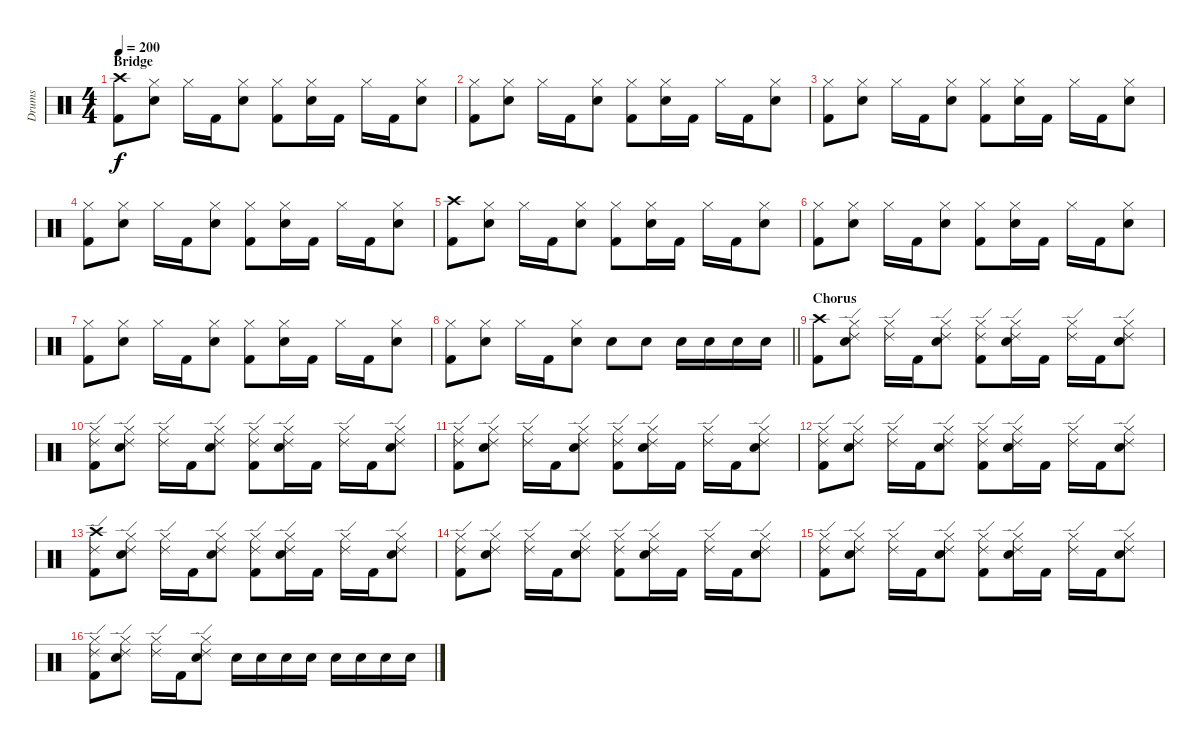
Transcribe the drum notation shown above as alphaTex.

\track ("Drums" "Drums") {instrument percussion}
\staff {score}
\articulation defaults
\ts (4 4)
\section ("" "Bridge")
\tempo 200
\clef neutral
\ks c
("Crash high (hit)" "Kick (hit) 2").8{dy f} ("Hi-Hat (closed)" "Electric Snare (hit)").8 "Hi-Hat (closed)".16 "Kick (hit) 2".16 ("Hi-Hat (closed)" "Electric Snare (hit)").8 ("Hi-Hat (closed)" "Kick (hit) 2").8 ("Hi-Hat (closed)" "Electric Snare (hit)").16 "Kick (hit) 2".16 "Hi-Hat (closed)".16 "Kick (hit) 2".16 ("Hi-Hat (closed)" "Electric Snare (hit)").8 |
("Hi-Hat (closed)" "Kick (hit) 2").8 ("Hi-Hat (closed)" "Electric Snare (hit)").8 "Hi-Hat (closed)".16 "Kick (hit) 2".16 ("Hi-Hat (closed)" "Electric Snare (hit)").8 ("Hi-Hat (closed)" "Kick (hit) 2").8 ("Hi-Hat (closed)" "Electric Snare (hit)").16 "Kick (hit) 2".16 "Hi-Hat (closed)".16 "Kick (hit) 2".16 ("Hi-Hat (closed)" "Electric Snare (hit)").8 |
("Hi-Hat (closed)" "Kick (hit) 2").8 ("Hi-Hat (closed)" "Electric Snare (hit)").8 "Hi-Hat (closed)".16 "Kick (hit) 2".16 ("Hi-Hat (closed)" "Electric Snare (hit)").8 ("Hi-Hat (closed)" "Kick (hit) 2").8 ("Hi-Hat (closed)" "Electric Snare (hit)").16 "Kick (hit) 2".16 "Hi-Hat (closed)".16 "Kick (hit) 2".16 ("Hi-Hat (closed)" "Electric Snare (hit)").8 |
("Hi-Hat (closed)" "Kick (hit) 2").8 ("Hi-Hat (closed)" "Electric Snare (hit)").8 "Hi-Hat (closed)".16 "Kick (hit) 2".16 ("Hi-Hat (closed)" "Electric Snare (hit)").8 ("Hi-Hat (closed)" "Kick (hit) 2").8 ("Hi-Hat (closed)" "Electric Snare (hit)").16 "Kick (hit) 2".16 "Hi-Hat (closed)".16 "Kick (hit) 2".16 ("Hi-Hat (closed)" "Electric Snare (hit)").8 |
("Crash high (hit)" "Kick (hit) 2").8 ("Hi-Hat (closed)" "Electric Snare (hit)").8 "Hi-Hat (closed)".16 "Kick (hit) 2".16 ("Hi-Hat (closed)" "Electric Snare (hit)").8 ("Hi-Hat (closed)" "Kick (hit) 2").8 ("Hi-Hat (closed)" "Electric Snare (hit)").16 "Kick (hit) 2".16 "Hi-Hat (closed)".16 "Kick (hit) 2".16 ("Hi-Hat (closed)" "Electric Snare (hit)").8 |
("Hi-Hat (closed)" "Kick (hit) 2").8 ("Hi-Hat (closed)" "Electric Snare (hit)").8 "Hi-Hat (closed)".16 "Kick (hit) 2".16 ("Hi-Hat (closed)" "Electric Snare (hit)").8 ("Hi-Hat (closed)" "Kick (hit) 2").8 ("Hi-Hat (closed)" "Electric Snare (hit)").16 "Kick (hit) 2".16 "Hi-Hat (closed)".16 "Kick (hit) 2".16 ("Hi-Hat (closed)" "Electric Snare (hit)").8 |
("Hi-Hat (closed)" "Kick (hit) 2").8 ("Hi-Hat (closed)" "Electric Snare (hit)").8 "Hi-Hat (closed)".16 "Kick (hit) 2".16 ("Hi-Hat (closed)" "Electric Snare (hit)").8 ("Hi-Hat (closed)" "Kick (hit) 2").8 ("Hi-Hat (closed)" "Electric Snare (hit)").16 "Kick (hit) 2".16 "Hi-Hat (closed)".16 "Kick (hit) 2".16 ("Hi-Hat (closed)" "Electric Snare (hit)").8 |
\barLineRight lightlight
("Hi-Hat (closed)" "Kick (hit) 2").8 ("Hi-Hat (closed)" "Electric Snare (hit)").8 "Hi-Hat (closed)".16 "Kick (hit) 2".16 ("Hi-Hat (closed)" "Electric Snare (hit)").8 "Electric Snare (hit)".8 "Electric Snare (hit)".8 "Electric Snare (hit)".16 "Electric Snare (hit)".16 "Electric Snare (hit)".16 "Electric Snare (hit)".16 |
\section ("" "Chorus")
("Crash high (hit)" "Kick (hit) 2").8 ("Hi-Hat (closed)" "Ride (edge) 2" "Electric Snare (hit)").8 ("Hi-Hat (closed)" "Ride (edge) 2").16 "Kick (hit) 2".16 ("Hi-Hat (closed)" "Ride (edge) 2" "Electric Snare (hit)").8 ("Hi-Hat (closed)" "Ride (edge) 2" "Kick (hit) 2").8 ("Hi-Hat (closed)" "Ride (edge) 2" "Electric Snare (hit)").16 "Kick (hit) 2".16 ("Hi-Hat (closed)" "Ride (edge) 2").16 "Kick (hit) 2".16 ("Hi-Hat (closed)" "Ride (edge) 2" "Electric Snare (hit)").8 |
("Hi-Hat (closed)" "Ride (edge) 2" "Kick (hit) 2").8 ("Hi-Hat (closed)" "Ride (edge) 2" "Electric Snare (hit)").8 ("Hi-Hat (closed)" "Ride (edge) 2").16 "Kick (hit) 2".16 ("Hi-Hat (closed)" "Ride (edge) 2" "Electric Snare (hit)").8 ("Hi-Hat (closed)" "Ride (edge) 2" "Kick (hit) 2").8 ("Hi-Hat (closed)" "Ride (edge) 2" "Electric Snare (hit)").16 "Kick (hit) 2".16 ("Hi-Hat (closed)" "Ride (edge) 2").16 "Kick (hit) 2".16 ("Hi-Hat (closed)" "Ride (edge) 2" "Electric Snare (hit)").8 |
("Hi-Hat (closed)" "Ride (edge) 2" "Kick (hit) 2").8 ("Hi-Hat (closed)" "Ride (edge) 2" "Electric Snare (hit)").8 ("Hi-Hat (closed)" "Ride (edge) 2").16 "Kick (hit) 2".16 ("Hi-Hat (closed)" "Ride (edge) 2" "Electric Snare (hit)").8 ("Hi-Hat (closed)" "Ride (edge) 2" "Kick (hit) 2").8 ("Hi-Hat (closed)" "Ride (edge) 2" "Electric Snare (hit)").16 "Kick (hit) 2".16 ("Hi-Hat (closed)" "Ride (edge) 2").16 "Kick (hit) 2".16 ("Hi-Hat (closed)" "Ride (edge) 2" "Electric Snare (hit)").8 |
("Hi-Hat (closed)" "Ride (edge) 2" "Kick (hit) 2").8 ("Hi-Hat (closed)" "Ride (edge) 2" "Electric Snare (hit)").8 ("Hi-Hat (closed)" "Ride (edge) 2").16 "Kick (hit) 2".16 ("Hi-Hat (closed)" "Ride (edge) 2" "Electric Snare (hit)").8 ("Hi-Hat (closed)" "Ride (edge) 2" "Kick (hit) 2").8 ("Hi-Hat (closed)" "Ride (edge) 2" "Electric Snare (hit)").16 "Kick (hit) 2".16 ("Hi-Hat (closed)" "Ride (edge) 2").16 "Kick (hit) 2".16 ("Hi-Hat (closed)" "Ride (edge) 2" "Electric Snare (hit)").8 |
("Crash high (hit)" "Ride (edge) 2" "Kick (hit) 2").8 ("Hi-Hat (closed)" "Ride (edge) 2" "Electric Snare (hit)").8 ("Hi-Hat (closed)" "Ride (edge) 2").16 "Kick (hit) 2".16 ("Hi-Hat (closed)" "Ride (edge) 2" "Electric Snare (hit)").8 ("Hi-Hat (closed)" "Ride (edge) 2" "Kick (hit) 2").8 ("Hi-Hat (closed)" "Ride (edge) 2" "Electric Snare (hit)").16 "Kick (hit) 2".16 ("Hi-Hat (closed)" "Ride (edge) 2").16 "Kick (hit) 2".16 ("Hi-Hat (closed)" "Ride (edge) 2" "Electric Snare (hit)").8 |
("Hi-Hat (closed)" "Ride (edge) 2" "Kick (hit) 2").8 ("Hi-Hat (closed)" "Ride (edge) 2" "Electric Snare (hit)").8 ("Hi-Hat (closed)" "Ride (edge) 2").16 "Kick (hit) 2".16 ("Hi-Hat (closed)" "Ride (edge) 2" "Electric Snare (hit)").8 ("Hi-Hat (closed)" "Ride (edge) 2" "Kick (hit) 2").8 ("Hi-Hat (closed)" "Ride (edge) 2" "Electric Snare (hit)").16 "Kick (hit) 2".16 ("Hi-Hat (closed)" "Ride (edge) 2").16 "Kick (hit) 2".16 ("Hi-Hat (closed)" "Ride (edge) 2" "Electric Snare (hit)").8 |
("Hi-Hat (closed)" "Ride (edge) 2" "Kick (hit) 2").8 ("Hi-Hat (closed)" "Ride (edge) 2" "Electric Snare (hit)").8 ("Hi-Hat (closed)" "Ride (edge) 2").16 "Kick (hit) 2".16 ("Hi-Hat (closed)" "Ride (edge) 2" "Electric Snare (hit)").8 ("Hi-Hat (closed)" "Ride (edge) 2" "Kick (hit) 2").8 ("Hi-Hat (closed)" "Ride (edge) 2" "Electric Snare (hit)").16 "Kick (hit) 2".16 ("Hi-Hat (closed)" "Ride (edge) 2").16 "Kick (hit) 2".16 ("Hi-Hat (closed)" "Ride (edge) 2" "Electric Snare (hit)").8 |
("Hi-Hat (closed)" "Ride (edge) 2" "Kick (hit) 2").8 ("Hi-Hat (closed)" "Ride (edge) 2" "Electric Snare (hit)").8 ("Hi-Hat (closed)" "Ride (edge) 2").16 "Kick (hit) 2".16 ("Hi-Hat (closed)" "Ride (edge) 2" "Electric Snare (hit)").8 "Electric Snare (hit)".16 "Electric Snare (hit)".16 "Electric Snare (hit)".16 "Electric Snare (hit)".16 "Electric Snare (hit)".16 "Electric Snare (hit)".16 "Electric Snare (hit)".16 "Electric Snare (hit)".16
